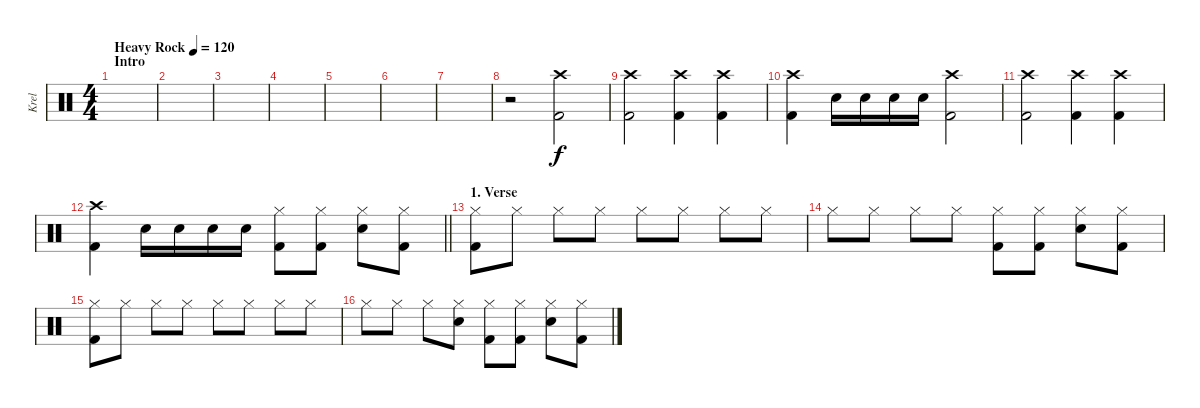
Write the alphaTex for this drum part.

\track ("Krel" "Krel") {instrument percussion}
\staff {score}
\articulation defaults
\ts (4 4)
\section ("" "Intro")
\tempo (120 "Heavy Rock")
\clef neutral
\ks c
|
|
|
|
|
|
|
r.2 ("Crash high (hit)" "Kick (hit) 2").2 |
("Crash high (hit)" "Kick (hit) 2").2 ("Crash high (hit)" "Kick (hit) 2").4 ("Crash high (hit)" "Kick (hit) 2").4 |
("Crash high (hit)" "Kick (hit) 2").4 "Snare (hit) 2".16 "Snare (hit) 2".16 "Snare (hit) 2".16 "Snare (hit) 2".16 ("Crash high (hit)" "Kick (hit) 2").2 |
("Crash high (hit)" "Kick (hit) 2").2 ("Crash high (hit)" "Kick (hit) 2").4 ("Crash high (hit)" "Kick (hit) 2").4 |
\barLineRight lightlight
("Crash high (hit)" "Kick (hit) 2").4 "Snare (hit) 2".16 "Snare (hit) 2".16 "Snare (hit) 2".16 "Snare (hit) 2".16 ("Hi-Hat (closed)" "Kick (hit) 2").8 ("Hi-Hat (closed)" "Kick (hit) 2").8 ("Hi-Hat (closed)" "Snare (hit) 2").8 ("Hi-Hat (closed)" "Kick (hit) 2").8 |
\section ("" "1. Verse")
("Hi-Hat (closed)" "Kick (hit) 2").8 "Hi-Hat (closed)".8 "Hi-Hat (closed)".8 "Hi-Hat (closed)".8 "Hi-Hat (closed)".8 "Hi-Hat (closed)".8 "Hi-Hat (closed)".8 "Hi-Hat (closed)".8 |
"Hi-Hat (closed)".8 "Hi-Hat (closed)".8 "Hi-Hat (closed)".8 "Hi-Hat (closed)".8 ("Hi-Hat (closed)" "Kick (hit) 2").8 ("Hi-Hat (closed)" "Kick (hit) 2").8 ("Hi-Hat (closed)" "Snare (hit) 2").8 ("Hi-Hat (closed)" "Kick (hit) 2").8 |
("Hi-Hat (closed)" "Kick (hit) 2").8 "Hi-Hat (closed)".8 "Hi-Hat (closed)".8 "Hi-Hat (closed)".8 "Hi-Hat (closed)".8 "Hi-Hat (closed)".8 "Hi-Hat (closed)".8 "Hi-Hat (closed)".8 |
"Hi-Hat (closed)".8 "Hi-Hat (closed)".8 "Hi-Hat (closed)".8 ("Hi-Hat (closed)" "Snare (hit) 2").8 ("Hi-Hat (closed)" "Kick (hit) 2").8 ("Hi-Hat (closed)" "Kick (hit) 2").8 ("Hi-Hat (closed)" "Snare (hit) 2").8 ("Hi-Hat (closed)" "Kick (hit) 2").8
